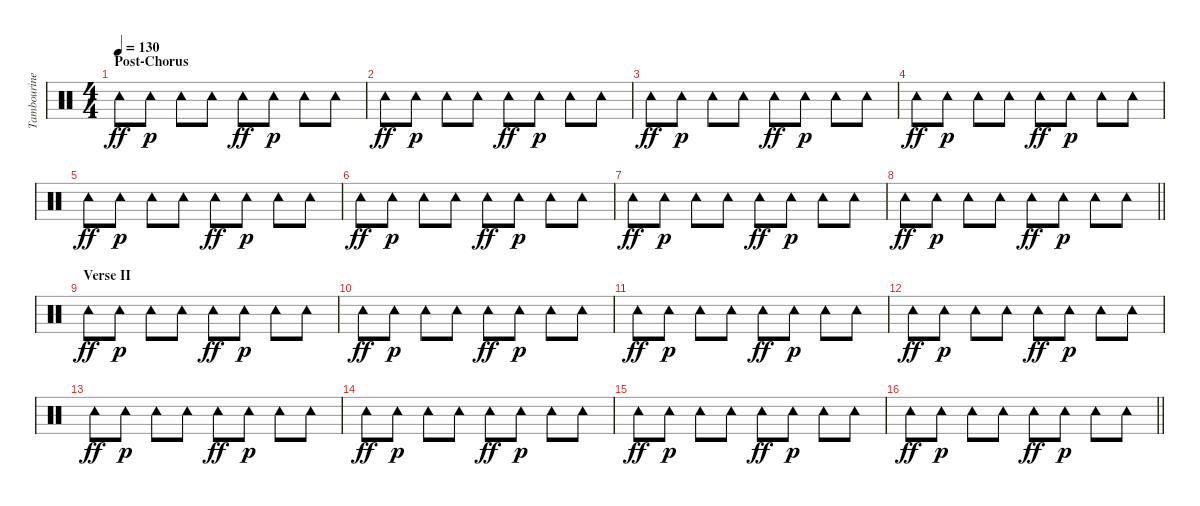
\track ("Tambourine" "Tambourine") {instrument percussion}
\staff {score}
\articulation defaults
\ts (4 4)
\section ("" "Post-Chorus")
\tempo 130
\clef neutral
\ks c "Tambourine (hit)".8{dy ff} "Tambourine (hit)".8{dy p} "Tambourine (hit)".8 "Tambourine (hit)".8 "Tambourine (hit)".8{dy ff} "Tambourine (hit)".8{dy p} "Tambourine (hit)".8 "Tambourine (hit)".8
|
"Tambourine (hit)".8{dy ff} "Tambourine (hit)".8{dy p} "Tambourine (hit)".8 "Tambourine (hit)".8 "Tambourine (hit)".8{dy ff} "Tambourine (hit)".8{dy p} "Tambourine (hit)".8 "Tambourine (hit)".8 |
"Tambourine (hit)".8{dy ff} "Tambourine (hit)".8{dy p} "Tambourine (hit)".8 "Tambourine (hit)".8 "Tambourine (hit)".8{dy ff} "Tambourine (hit)".8{dy p} "Tambourine (hit)".8 "Tambourine (hit)".8 |
"Tambourine (hit)".8{dy ff} "Tambourine (hit)".8{dy p} "Tambourine (hit)".8 "Tambourine (hit)".8 "Tambourine (hit)".8{dy ff} "Tambourine (hit)".8{dy p} "Tambourine (hit)".8 "Tambourine (hit)".8 |
"Tambourine (hit)".8{dy ff} "Tambourine (hit)".8{dy p} "Tambourine (hit)".8 "Tambourine (hit)".8 "Tambourine (hit)".8{dy ff} "Tambourine (hit)".8{dy p} "Tambourine (hit)".8 "Tambourine (hit)".8 |
"Tambourine (hit)".8{dy ff} "Tambourine (hit)".8{dy p} "Tambourine (hit)".8 "Tambourine (hit)".8 "Tambourine (hit)".8{dy ff} "Tambourine (hit)".8{dy p} "Tambourine (hit)".8 "Tambourine (hit)".8 |
"Tambourine (hit)".8{dy ff} "Tambourine (hit)".8{dy p} "Tambourine (hit)".8 "Tambourine (hit)".8 "Tambourine (hit)".8{dy ff} "Tambourine (hit)".8{dy p} "Tambourine (hit)".8 "Tambourine (hit)".8 |
\barLineRight lightlight "Tambourine (hit)".8{dy ff} "Tambourine (hit)".8{dy p} "Tambourine (hit)".8 "Tambourine (hit)".8 "Tambourine (hit)".8{dy ff} "Tambourine (hit)".8{dy p} "Tambourine (hit)".8 "Tambourine (hit)".8
|
\section ("" "Verse II")
"Tambourine (hit)".8{dy ff} "Tambourine (hit)".8{dy p} "Tambourine (hit)".8 "Tambourine (hit)".8 "Tambourine (hit)".8{dy ff} "Tambourine (hit)".8{dy p} "Tambourine (hit)".8 "Tambourine (hit)".8 |
"Tambourine (hit)".8{dy ff} "Tambourine (hit)".8{dy p} "Tambourine (hit)".8 "Tambourine (hit)".8 "Tambourine (hit)".8{dy ff} "Tambourine (hit)".8{dy p} "Tambourine (hit)".8 "Tambourine (hit)".8 |
"Tambourine (hit)".8{dy ff} "Tambourine (hit)".8{dy p} "Tambourine (hit)".8 "Tambourine (hit)".8 "Tambourine (hit)".8{dy ff} "Tambourine (hit)".8{dy p} "Tambourine (hit)".8 "Tambourine (hit)".8 |
"Tambourine (hit)".8{dy ff} "Tambourine (hit)".8{dy p} "Tambourine (hit)".8 "Tambourine (hit)".8 "Tambourine (hit)".8{dy ff} "Tambourine (hit)".8{dy p} "Tambourine (hit)".8 "Tambourine (hit)".8 |
"Tambourine (hit)".8{dy ff} "Tambourine (hit)".8{dy p} "Tambourine (hit)".8 "Tambourine (hit)".8 "Tambourine (hit)".8{dy ff} "Tambourine (hit)".8{dy p} "Tambourine (hit)".8 "Tambourine (hit)".8 |
"Tambourine (hit)".8{dy ff} "Tambourine (hit)".8{dy p} "Tambourine (hit)".8 "Tambourine (hit)".8 "Tambourine (hit)".8{dy ff} "Tambourine (hit)".8{dy p} "Tambourine (hit)".8 "Tambourine (hit)".8 |
"Tambourine (hit)".8{dy ff} "Tambourine (hit)".8{dy p} "Tambourine (hit)".8 "Tambourine (hit)".8 "Tambourine (hit)".8{dy ff} "Tambourine (hit)".8{dy p} "Tambourine (hit)".8 "Tambourine (hit)".8 |
\barLineRight lightlight "Tambourine (hit)".8{dy ff} "Tambourine (hit)".8{dy p} "Tambourine (hit)".8 "Tambourine (hit)".8 "Tambourine (hit)".8{dy ff} "Tambourine (hit)".8{dy p} "Tambourine (hit)".8 "Tambourine (hit)".8
